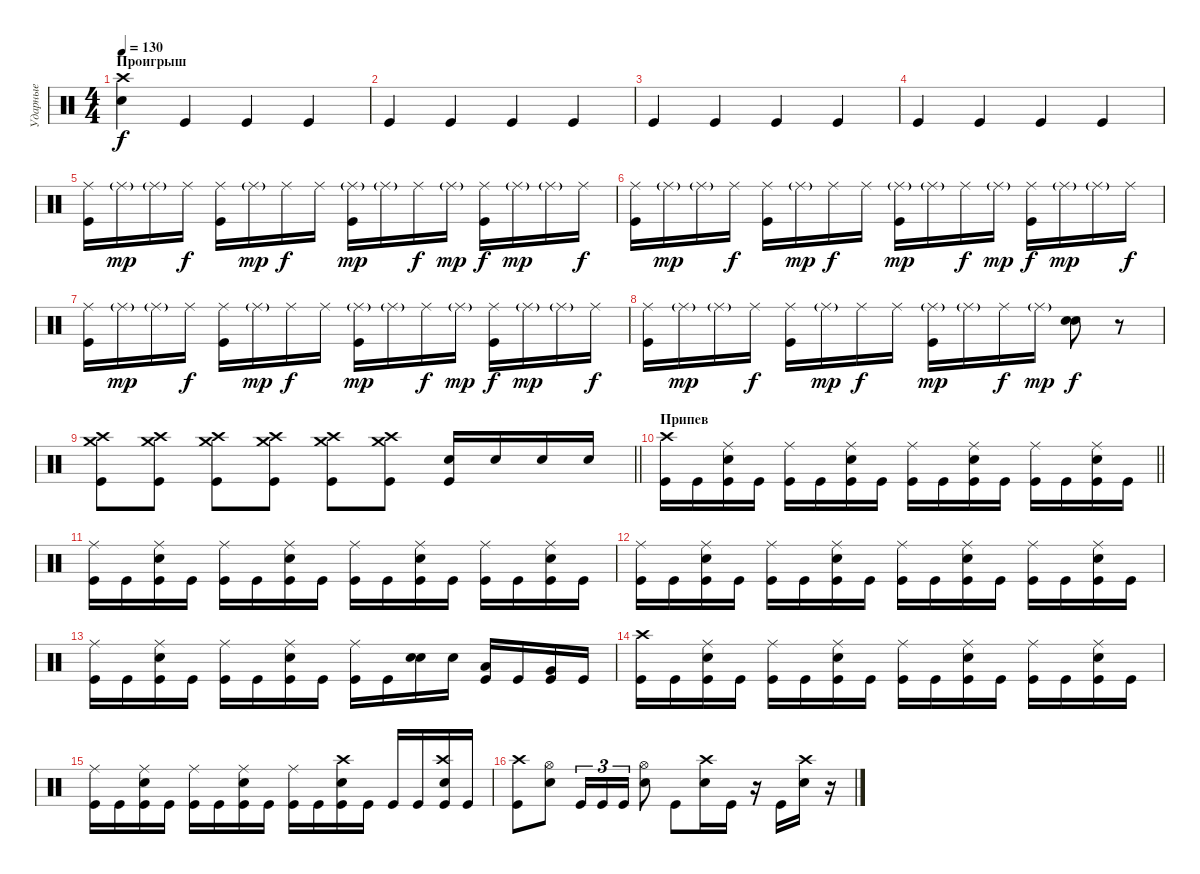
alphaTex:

\track ("Ударные" "Ударные") {instrument percussion}
\staff {score}
\articulation defaults
\ts (4 4)
\section ("" "Проигрыш")
\tempo 130
\clef neutral
\ks c
("Snare (hit) 2" "Crash high (hit)").4{dy f} "Kick (hit)".4 "Kick (hit)".4 "Kick (hit)".4 |
"Kick (hit)".4 "Kick (hit)".4 "Kick (hit)".4 "Kick (hit)".4 |
"Kick (hit)".4 "Kick (hit)".4 "Kick (hit)".4 "Kick (hit)".4 |
"Kick (hit)".4 "Kick (hit)".4 "Kick (hit)".4 "Kick (hit)".4 |
("Kick (hit)" "Ride (middle)").16 "Ride (middle)"{g}.16{dy mp} "Ride (middle)"{g}.16 "Ride (middle)".16{dy f} ("Kick (hit)" "Ride (middle)").16 "Ride (middle)"{g}.16{dy mp} "Ride (middle)".16{dy f} "Ride (middle)".16 ("Kick (hit)" "Ride (middle)"{g}).16{dy mp} "Ride (middle)"{g}.16 "Ride (middle)".16{dy f} "Ride (middle)"{g}.16{dy mp} ("Kick (hit)" "Ride (middle)").16{dy f} "Ride (middle)"{g}.16{dy mp} "Ride (middle)"{g}.16 "Ride (middle)".16{dy f} |
("Kick (hit)" "Ride (middle)").16 "Ride (middle)"{g}.16{dy mp} "Ride (middle)"{g}.16 "Ride (middle)".16{dy f} ("Kick (hit)" "Ride (middle)").16 "Ride (middle)"{g}.16{dy mp} "Ride (middle)".16{dy f} "Ride (middle)".16 ("Kick (hit)" "Ride (middle)"{g}).16{dy mp} "Ride (middle)"{g}.16 "Ride (middle)".16{dy f} "Ride (middle)"{g}.16{dy mp} ("Kick (hit)" "Ride (middle)").16{dy f} "Ride (middle)"{g}.16{dy mp} "Ride (middle)"{g}.16 "Ride (middle)".16{dy f} |
("Kick (hit)" "Ride (middle)").16 "Ride (middle)"{g}.16{dy mp} "Ride (middle)"{g}.16 "Ride (middle)".16{dy f} ("Kick (hit)" "Ride (middle)").16 "Ride (middle)"{g}.16{dy mp} "Ride (middle)".16{dy f} "Ride (middle)".16 ("Kick (hit)" "Ride (middle)"{g}).16{dy mp} "Ride (middle)"{g}.16 "Ride (middle)".16{dy f} "Ride (middle)"{g}.16{dy mp} ("Kick (hit)" "Ride (middle)").16{dy f} "Ride (middle)"{g}.16{dy mp} "Ride (middle)"{g}.16 "Ride (middle)".16{dy f} |
("Kick (hit)" "Ride (middle)").16 "Ride (middle)"{g}.16{dy mp} "Ride (middle)"{g}.16 "Ride (middle)".16{dy f} ("Kick (hit)" "Ride (middle)").16 "Ride (middle)"{g}.16{dy mp} "Ride (middle)".16{dy f} "Ride (middle)".16 ("Kick (hit)" "Ride (middle)"{g}).16{dy mp} "Ride (middle)"{g}.16 "Ride (middle)".16{dy f} "Ride (middle)"{g}.16{dy mp} ("Snare (hit) 2" "Snare (hit) 2").8{dy f} r.8 |
\barLineRight lightlight
("Kick (hit)" "Crash medium (hit)" "Crash high (hit)").8 ("Kick (hit)" "Crash medium (hit)" "Crash high (hit)").8 ("Kick (hit)" "Crash medium (hit)" "Crash high (hit)").8 ("Kick (hit)" "Crash medium (hit)" "Crash high (hit)").8 ("Kick (hit)" "Crash medium (hit)" "Crash high (hit)").8 ("Kick (hit)" "Crash medium (hit)" "Crash high (hit)").8 ("Kick (hit)" "Snare (hit) 2").16 "Snare (hit) 2".16 "Snare (hit) 2".16 "Snare (hit) 2".16 |
\section ("" "Припев")
\barLineRight lightlight
("Kick (hit)" "Crash high (hit)").16 "Kick (hit)".16 ("Kick (hit)" "Snare (hit) 2" "Ride (middle)").16 "Kick (hit)".16 ("Kick (hit)" "Ride (middle)").16 "Kick (hit)".16 ("Kick (hit)" "Snare (hit) 2" "Ride (middle)").16 "Kick (hit)".16 ("Kick (hit)" "Ride (middle)").16 "Kick (hit)".16 ("Kick (hit)" "Snare (hit) 2" "Ride (middle)").16 "Kick (hit)".16 ("Kick (hit)" "Ride (middle)").16 "Kick (hit)".16 ("Kick (hit)" "Snare (hit) 2" "Ride (middle)").16 "Kick (hit)".16 |
\section ("" "")
("Kick (hit)" "Ride (middle)").16 "Kick (hit)".16 ("Kick (hit)" "Snare (hit) 2" "Ride (middle)").16 "Kick (hit)".16 ("Kick (hit)" "Ride (middle)").16 "Kick (hit)".16 ("Kick (hit)" "Snare (hit) 2" "Ride (middle)").16 "Kick (hit)".16 ("Kick (hit)" "Ride (middle)").16 "Kick (hit)".16 ("Kick (hit)" "Snare (hit) 2" "Ride (middle)").16 "Kick (hit)".16 ("Kick (hit)" "Ride (middle)").16 "Kick (hit)".16 ("Kick (hit)" "Snare (hit) 2" "Ride (middle)").16 "Kick (hit)".16 |
("Kick (hit)" "Ride (middle)").16 "Kick (hit)".16 ("Kick (hit)" "Snare (hit) 2" "Ride (middle)").16 "Kick (hit)".16 ("Kick (hit)" "Ride (middle)").16 "Kick (hit)".16 ("Kick (hit)" "Snare (hit) 2" "Ride (middle)").16 "Kick (hit)".16 ("Kick (hit)" "Ride (middle)").16 "Kick (hit)".16 ("Kick (hit)" "Snare (hit) 2" "Ride (middle)").16 "Kick (hit)".16 ("Kick (hit)" "Ride (middle)").16 "Kick (hit)".16 ("Kick (hit)" "Snare (hit) 2" "Ride (middle)").16 "Kick (hit)".16 |
("Kick (hit)" "Ride (middle)").16 "Kick (hit)".16 ("Kick (hit)" "Snare (hit) 2" "Ride (middle)").16 "Kick (hit)".16 ("Kick (hit)" "Ride (middle)").16 "Kick (hit)".16 ("Kick (hit)" "Snare (hit) 2" "Ride (middle)").16 "Kick (hit)".16 ("Kick (hit)" "Ride (middle)").16 "Kick (hit)".16 ("Snare (hit) 2" "Snare (hit) 2").16{bd 60} "Snare (hit) 2".16 ("Kick (hit)" "Low Tom (hit)").16 "Kick (hit)".16 ("Kick (hit)" "Very Low Tom (hit)").16 "Kick (hit)".16 |
("Kick (hit)" "Crash high (hit)").16 "Kick (hit)".16 ("Kick (hit)" "Snare (hit) 2" "Ride (middle)").16 "Kick (hit)".16 ("Kick (hit)" "Ride (middle)").16 "Kick (hit)".16 ("Kick (hit)" "Snare (hit) 2" "Ride (middle)").16 "Kick (hit)".16 ("Kick (hit)" "Ride (middle)").16 "Kick (hit)".16 ("Kick (hit)" "Snare (hit) 2" "Ride (middle)").16 "Kick (hit)".16 ("Kick (hit)" "Ride (middle)").16 "Kick (hit)".16 ("Kick (hit)" "Snare (hit) 2" "Ride (middle)").16 "Kick (hit)".16 |
("Kick (hit)" "Ride (middle)").16 "Kick (hit)".16 ("Kick (hit)" "Snare (hit) 2" "Ride (middle)").16 "Kick (hit)".16 ("Kick (hit)" "Ride (middle)").16 "Kick (hit)".16 ("Kick (hit)" "Snare (hit) 2" "Ride (middle)").16 "Kick (hit)".16 ("Kick (hit)" "Ride (middle)").16 "Kick (hit)".16 ("Kick (hit)" "Snare (hit) 2" "Crash high (hit)").16 "Kick (hit)".16 "Kick (hit)".16 "Kick (hit)".16 ("Kick (hit)" "Snare (hit) 2" "Crash high (hit)").16 "Kick (hit)".16 |
("Kick (hit)" "Crash high (hit)").8 ("Snare (hit) 2" "Hi-Hat (open)").8 "Kick (hit)".16{tu (3 2)} "Kick (hit)".16{tu (3 2)} "Kick (hit)".16{tu (3 2)} ("Snare (hit) 2" "Hi-Hat (open)").8 "Kick (hit)".8 ("Snare (hit) 2" "Crash high (hit)").16 "Kick (hit)".16 r.16 "Kick (hit)".16 ("Snare (hit) 2" "Crash high (hit)").16 r.16
